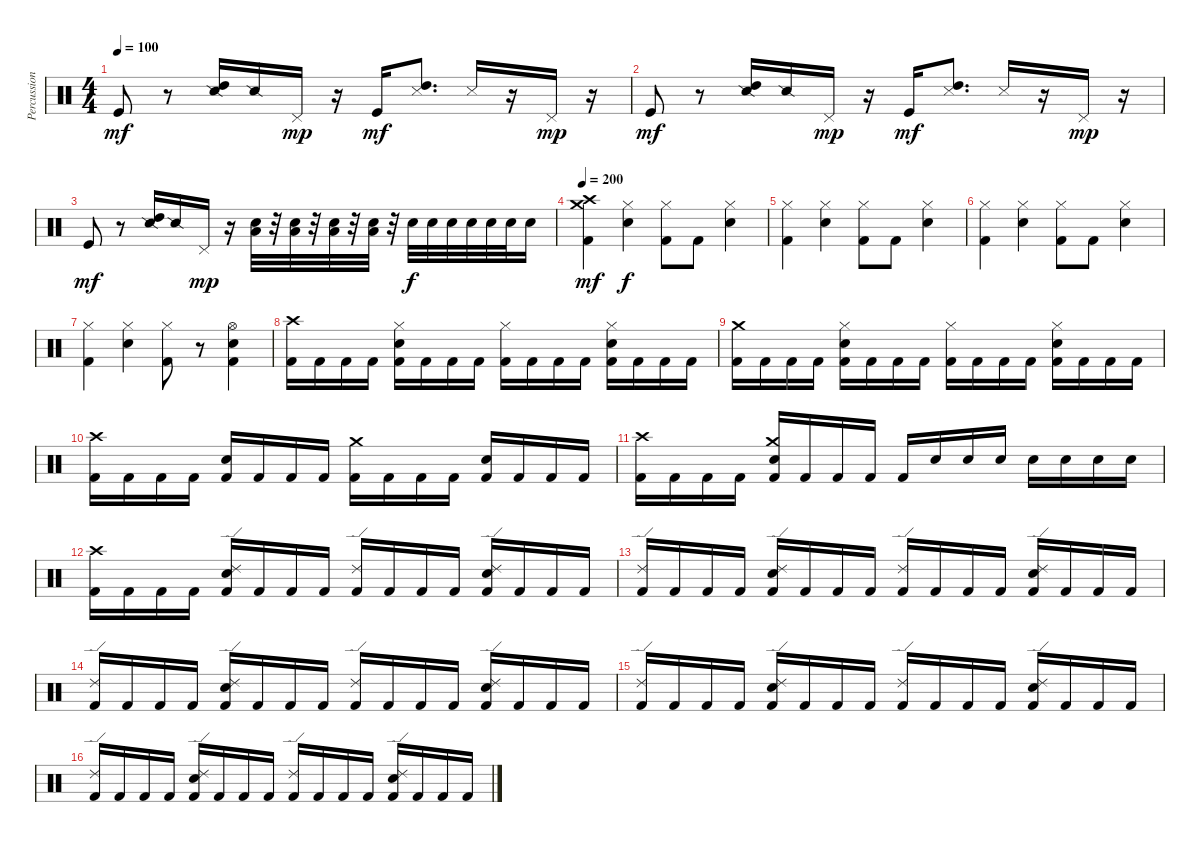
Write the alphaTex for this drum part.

\track ("Percussion" "Percussion") {instrument percussion}
\staff {score}
\articulation defaults
\ts (4 4)
\tempo 100
\clef neutral
\ks c "Kick (hit)".8{dy mf}
r.8 ("High Tom (hit)" "Snare (side stick) 2").16 "Snare (side stick) 2".16 "Pedal Hi-Hat (hit)".16{dy mp} r.16 "Kick (hit)".16{dy mf} ("High Tom (hit)" "Snare (side stick) 3").8{d} "Snare (side stick) 3".16 r.16 "Pedal Hi-Hat (hit)".16{dy mp} r.16 |
"Kick (hit)".8{dy mf} r.8 ("High Tom (hit)" "Snare (side stick) 2").16 "Snare (side stick) 2".16 "Pedal Hi-Hat (hit)".16{dy mp} r.16 "Kick (hit)".16{dy mf} ("High Tom (hit)" "Snare (side stick) 3").8{d} "Snare (side stick) 3".16 r.16 "Pedal Hi-Hat (hit)".16{dy mp} r.16 |
"Kick (hit)".8{dy mf} r.8 ("High Tom (hit)" "Snare (side stick) 2").16 "Snare (side stick) 2".16 "Pedal Hi-Hat (hit)".16{dy mp} r.16 ("Snare (hit) 2" "Low Tom (hit)").32 r.32 ("Snare (hit) 2" "Low Tom (hit)").32 r.32 ("Snare (hit) 2" "Low Tom (hit)").32 r.32 ("Snare (hit) 2" "Low Tom (hit)").32 r.32 "Snare (hit) 2".32{dy f} "Snare (hit) 2".32 "Snare (hit) 2".32 "Snare (hit) 2".32 "Snare (hit) 2".32 "Snare (hit) 2".32 "Snare (hit) 2".16 |
\tempo 200
("Crash high (hit)" "Crash medium (hit)" "Kick (hit) 2").4{dy mf} ("Hi-Hat (closed)" "Snare (hit) 2").4{dy f} ("Hi-Hat (closed)" "Kick (hit) 2").8 "Kick (hit) 2".8 ("Hi-Hat (closed)" "Snare (hit) 2").4 |
("Hi-Hat (closed)" "Kick (hit) 2").4 ("Hi-Hat (closed)" "Snare (hit) 2").4 ("Hi-Hat (closed)" "Kick (hit) 2").8 "Kick (hit) 2".8 ("Hi-Hat (closed)" "Snare (hit) 2").4 |
("Hi-Hat (closed)" "Kick (hit) 2").4 ("Hi-Hat (closed)" "Snare (hit) 2").4 ("Hi-Hat (closed)" "Kick (hit) 2").8 "Kick (hit) 2".8 ("Hi-Hat (closed)" "Snare (hit) 2").4 |
("Hi-Hat (closed)" "Kick (hit) 2").4 ("Hi-Hat (closed)" "Snare (hit) 2").4 ("Hi-Hat (closed)" "Kick (hit) 2").8 r.8 ("Hi-Hat (open)" "Snare (hit) 2" "Kick (hit) 2").4 |
("Crash high (hit)" "Kick (hit) 2").16 "Kick (hit) 2".16 "Kick (hit) 2".16 "Kick (hit) 2".16 ("Hi-Hat (closed)" "Snare (hit) 2" "Kick (hit) 2").16 "Kick (hit) 2".16 "Kick (hit) 2".16 "Kick (hit) 2".16 ("Hi-Hat (closed)" "Kick (hit) 2").16 "Kick (hit) 2".16 "Kick (hit) 2".16 "Kick (hit) 2".16 ("Hi-Hat (closed)" "Snare (hit) 2" "Kick (hit) 2").16 "Kick (hit) 2".16 "Kick (hit) 2".16 "Kick (hit) 2".16 |
("Crash medium (hit)" "Kick (hit) 2").16 "Kick (hit) 2".16 "Kick (hit) 2".16 "Kick (hit) 2".16 ("Hi-Hat (closed)" "Snare (hit) 2" "Kick (hit) 2").16 "Kick (hit) 2".16 "Kick (hit) 2".16 "Kick (hit) 2".16 ("Hi-Hat (closed)" "Kick (hit) 2").16 "Kick (hit) 2".16 "Kick (hit) 2".16 "Kick (hit) 2".16 ("Hi-Hat (closed)" "Snare (hit) 2" "Kick (hit) 2").16 "Kick (hit) 2".16 "Kick (hit) 2".16 "Kick (hit) 2".16 |
("Crash high (hit)" "Kick (hit) 2").16 "Kick (hit) 2".16 "Kick (hit) 2".16 "Kick (hit) 2".16 ("Snare (hit) 2" "Kick (hit) 2").16 "Kick (hit) 2".16 "Kick (hit) 2".16 "Kick (hit) 2".16 ("Crash medium (hit)" "Kick (hit) 2").16 "Kick (hit) 2".16 "Kick (hit) 2".16 "Kick (hit) 2".16 ("Snare (hit) 2" "Kick (hit) 2").16 "Kick (hit) 2".16 "Kick (hit) 2".16 "Kick (hit) 2".16 |
("Crash high (hit)" "Kick (hit) 2").16 "Kick (hit) 2".16 "Kick (hit) 2".16 "Kick (hit) 2".16 ("Crash medium (hit)" "Snare (hit) 2" "Kick (hit) 2").16 "Kick (hit) 2".16 "Kick (hit) 2".16 "Kick (hit) 2".16 "Kick (hit) 2".16 "Snare (hit) 2".16 "Snare (hit) 2".16 "Snare (hit) 2".16 "Snare (hit) 2".16 "Snare (hit) 2".16 "Snare (hit) 2".16 "Snare (hit) 2".16 |
("Crash high (hit)" "Kick (hit) 2").16 "Kick (hit) 2".16 "Kick (hit) 2".16 "Kick (hit) 2".16 ("Ride (edge) 2" "Snare (hit) 2" "Kick (hit) 2").16 "Kick (hit) 2".16 "Kick (hit) 2".16 "Kick (hit) 2".16 ("Ride (edge) 2" "Kick (hit) 2").16 "Kick (hit) 2".16 "Kick (hit) 2".16 "Kick (hit) 2".16 ("Ride (edge) 2" "Snare (hit) 2" "Kick (hit) 2").16 "Kick (hit) 2".16 "Kick (hit) 2".16 "Kick (hit) 2".16 |
("Ride (edge) 2" "Kick (hit) 2").16 "Kick (hit) 2".16 "Kick (hit) 2".16 "Kick (hit) 2".16 ("Ride (edge) 2" "Snare (hit) 2" "Kick (hit) 2").16 "Kick (hit) 2".16 "Kick (hit) 2".16 "Kick (hit) 2".16 ("Ride (edge) 2" "Kick (hit) 2").16 "Kick (hit) 2".16 "Kick (hit) 2".16 "Kick (hit) 2".16 ("Ride (edge) 2" "Snare (hit) 2" "Kick (hit) 2").16 "Kick (hit) 2".16 "Kick (hit) 2".16 "Kick (hit) 2".16 |
("Ride (edge) 2" "Kick (hit) 2").16 "Kick (hit) 2".16 "Kick (hit) 2".16 "Kick (hit) 2".16 ("Ride (edge) 2" "Snare (hit) 2" "Kick (hit) 2").16 "Kick (hit) 2".16 "Kick (hit) 2".16 "Kick (hit) 2".16 ("Ride (edge) 2" "Kick (hit) 2").16 "Kick (hit) 2".16 "Kick (hit) 2".16 "Kick (hit) 2".16 ("Ride (edge) 2" "Snare (hit) 2" "Kick (hit) 2").16 "Kick (hit) 2".16 "Kick (hit) 2".16 "Kick (hit) 2".16 |
("Ride (edge) 2" "Kick (hit) 2").16 "Kick (hit) 2".16 "Kick (hit) 2".16 "Kick (hit) 2".16 ("Ride (edge) 2" "Snare (hit) 2" "Kick (hit) 2").16 "Kick (hit) 2".16 "Kick (hit) 2".16 "Kick (hit) 2".16 ("Ride (edge) 2" "Kick (hit) 2").16 "Kick (hit) 2".16 "Kick (hit) 2".16 "Kick (hit) 2".16 ("Ride (edge) 2" "Snare (hit) 2" "Kick (hit) 2").16 "Kick (hit) 2".16 "Kick (hit) 2".16 "Kick (hit) 2".16 |
("Ride (edge) 2" "Kick (hit) 2").16 "Kick (hit) 2".16 "Kick (hit) 2".16 "Kick (hit) 2".16 ("Ride (edge) 2" "Snare (hit) 2" "Kick (hit) 2").16 "Kick (hit) 2".16 "Kick (hit) 2".16 "Kick (hit) 2".16 ("Ride (edge) 2" "Kick (hit) 2").16 "Kick (hit) 2".16 "Kick (hit) 2".16 "Kick (hit) 2".16 ("Ride (edge) 2" "Snare (hit) 2" "Kick (hit) 2").16 "Kick (hit) 2".16 "Kick (hit) 2".16 "Kick (hit) 2".16
